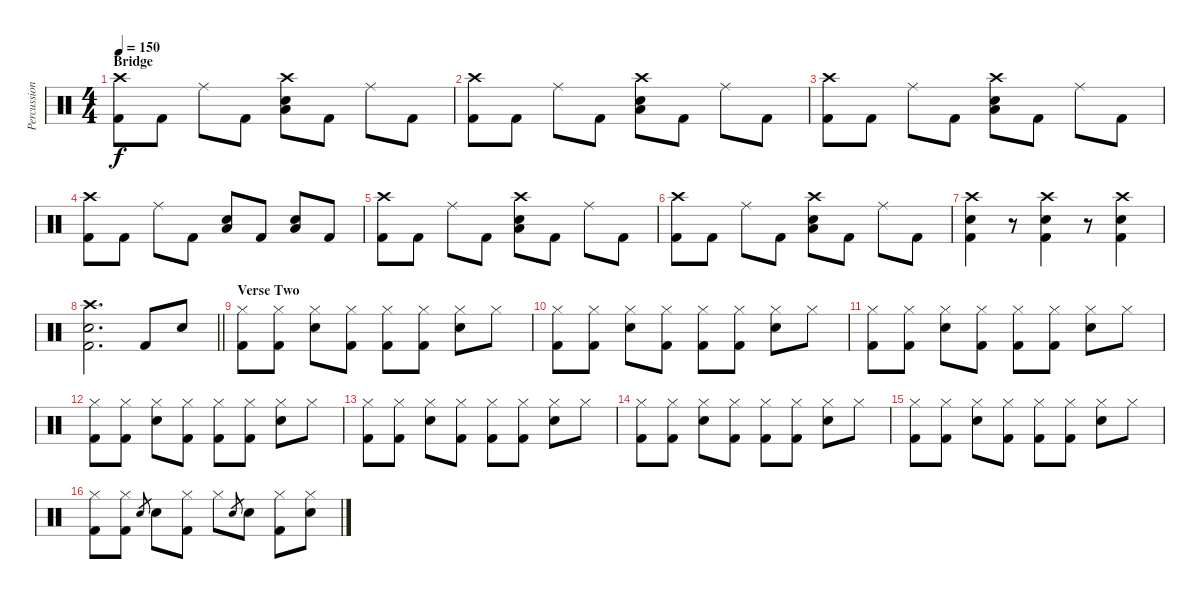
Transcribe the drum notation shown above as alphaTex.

\track ("Percussion" "Percussion") {instrument percussion}
\staff {score}
\articulation defaults
\ts (4 4)
\section ("" "Bridge")
\tempo 150
\clef neutral
\ks c
("Crash high (hit)" "Kick (hit) 2").8{dy f} "Kick (hit) 2".8 "Ride (middle)".8 "Kick (hit) 2".8 ("Crash high (hit)" "Low Tom (hit)" "Snare (hit) 2").8 "Kick (hit) 2".8 "Ride (middle)".8 "Kick (hit) 2".8 |
("Crash high (hit)" "Kick (hit) 2").8 "Kick (hit) 2".8 "Ride (middle)".8 "Kick (hit) 2".8 ("Crash high (hit)" "Low Tom (hit)" "Snare (hit) 2").8 "Kick (hit) 2".8 "Ride (middle)".8 "Kick (hit) 2".8 |
("Crash high (hit)" "Kick (hit) 2").8 "Kick (hit) 2".8 "Ride (middle)".8 "Kick (hit) 2".8 ("Crash high (hit)" "Low Tom (hit)" "Snare (hit) 2").8 "Kick (hit) 2".8 "Ride (middle)".8 "Kick (hit) 2".8 |
("Crash high (hit)" "Kick (hit) 2").8 "Kick (hit) 2".8 "Ride (middle)".8 "Kick (hit) 2".8 ("Low Tom (hit)" "Snare (hit) 2").8 "Kick (hit) 2".8 ("Low Tom (hit)" "Snare (hit) 2").8 "Kick (hit) 2".8 |
("Crash high (hit)" "Kick (hit) 2").8 "Kick (hit) 2".8 "Ride (middle)".8 "Kick (hit) 2".8 ("Crash high (hit)" "Low Tom (hit)" "Snare (hit) 2").8 "Kick (hit) 2".8 "Ride (middle)".8 "Kick (hit) 2".8 |
("Crash high (hit)" "Kick (hit) 2").8 "Kick (hit) 2".8 "Ride (middle)".8 "Kick (hit) 2".8 ("Crash high (hit)" "Low Tom (hit)" "Snare (hit) 2").8 "Kick (hit) 2".8 "Ride (middle)".8 "Kick (hit) 2".8 |
("Crash high (hit)" "Snare (hit) 2" "Kick (hit) 2").4 r.8 ("Crash high (hit)" "Snare (hit) 2" "Kick (hit) 2").4 r.8 ("Crash high (hit)" "Snare (hit) 2" "Kick (hit) 2").4 |
\barLineRight lightlight
("Crash high (hit)" "Snare (hit) 2" "Kick (hit) 2").2{d} "Kick (hit) 2".8 "Snare (hit) 2".8 |
\section ("" "Verse Two")
("Hi-Hat (closed)" "Kick (hit) 2").8 ("Hi-Hat (closed)" "Kick (hit) 2").8 ("Hi-Hat (closed)" "Snare (hit) 2").8 ("Hi-Hat (closed)" "Kick (hit) 2").8 ("Hi-Hat (closed)" "Kick (hit) 2").8 ("Hi-Hat (closed)" "Kick (hit) 2").8 ("Hi-Hat (closed)" "Snare (hit) 2").8 "Hi-Hat (closed)".8 |
("Hi-Hat (closed)" "Kick (hit) 2").8 ("Hi-Hat (closed)" "Kick (hit) 2").8 ("Hi-Hat (closed)" "Snare (hit) 2").8 ("Hi-Hat (closed)" "Kick (hit) 2").8 ("Hi-Hat (closed)" "Kick (hit) 2").8 ("Hi-Hat (closed)" "Kick (hit) 2").8 ("Hi-Hat (closed)" "Snare (hit) 2").8 "Hi-Hat (closed)".8 |
("Hi-Hat (closed)" "Kick (hit) 2").8 ("Hi-Hat (closed)" "Kick (hit) 2").8 ("Hi-Hat (closed)" "Snare (hit) 2").8 ("Hi-Hat (closed)" "Kick (hit) 2").8 ("Hi-Hat (closed)" "Kick (hit) 2").8 ("Hi-Hat (closed)" "Kick (hit) 2").8 ("Hi-Hat (closed)" "Snare (hit) 2").8 "Hi-Hat (closed)".8 |
("Hi-Hat (closed)" "Kick (hit) 2").8 ("Hi-Hat (closed)" "Kick (hit) 2").8 ("Hi-Hat (closed)" "Snare (hit) 2").8 ("Hi-Hat (closed)" "Kick (hit) 2").8 ("Hi-Hat (closed)" "Kick (hit) 2").8 ("Hi-Hat (closed)" "Kick (hit) 2").8 ("Hi-Hat (closed)" "Snare (hit) 2").8 "Hi-Hat (closed)".8 |
("Hi-Hat (closed)" "Kick (hit) 2").8 ("Hi-Hat (closed)" "Kick (hit) 2").8 ("Hi-Hat (closed)" "Snare (hit) 2").8 ("Hi-Hat (closed)" "Kick (hit) 2").8 ("Hi-Hat (closed)" "Kick (hit) 2").8 ("Hi-Hat (closed)" "Kick (hit) 2").8 ("Hi-Hat (closed)" "Snare (hit) 2").8 "Hi-Hat (closed)".8 |
("Hi-Hat (closed)" "Kick (hit) 2").8 ("Hi-Hat (closed)" "Kick (hit) 2").8 ("Hi-Hat (closed)" "Snare (hit) 2").8 ("Hi-Hat (closed)" "Kick (hit) 2").8 ("Hi-Hat (closed)" "Kick (hit) 2").8 ("Hi-Hat (closed)" "Kick (hit) 2").8 ("Hi-Hat (closed)" "Snare (hit) 2").8 "Hi-Hat (closed)".8 |
("Hi-Hat (closed)" "Kick (hit) 2").8 ("Hi-Hat (closed)" "Kick (hit) 2").8 ("Hi-Hat (closed)" "Snare (hit) 2").8 ("Hi-Hat (closed)" "Kick (hit) 2").8 ("Hi-Hat (closed)" "Kick (hit) 2").8 ("Hi-Hat (closed)" "Kick (hit) 2").8 ("Hi-Hat (closed)" "Snare (hit) 2").8 "Hi-Hat (closed)".8 |
("Hi-Hat (closed)" "Kick (hit) 2").8 ("Hi-Hat (closed)" "Kick (hit) 2").8 "Snare (hit) 2".8{gr} "Snare (hit) 2".8 ("Hi-Hat (closed)" "Kick (hit) 2").8 "Hi-Hat (closed)".8 "Snare (hit) 2".8{gr} "Snare (hit) 2".8 ("Hi-Hat (closed)" "Kick (hit) 2").8 ("Hi-Hat (closed)" "Snare (hit) 2").8
